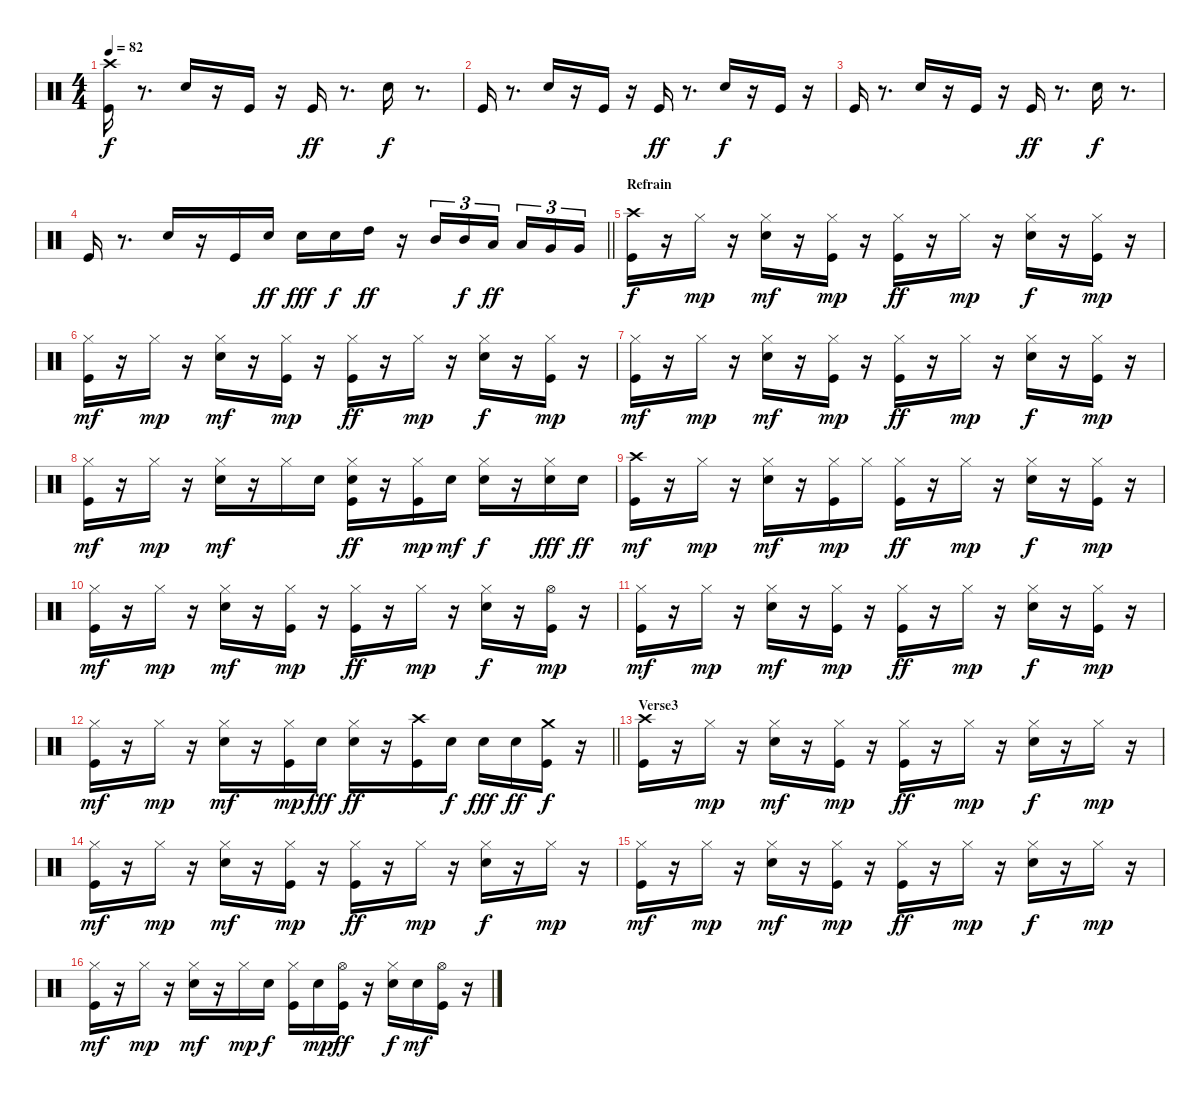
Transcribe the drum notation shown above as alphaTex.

\track "" {instrument percussion}
\staff {score}
\articulation defaults
\ts (4 4)
\tempo 82
\clef neutral
\ks c
("Crash high (hit)" "Kick (hit)").16{dy f} r.8{d} "Electric Snare (hit)".16 r.16 "Kick (hit)".16 r.16 "Kick (hit)".16{dy ff} r.8{d} "Electric Snare (hit)".16{dy f} r.8{d} |
"Kick (hit)".16 r.8{d} "Electric Snare (hit)".16 r.16 "Kick (hit)".16 r.16 "Kick (hit)".16{dy ff} r.8{d} "Electric Snare (hit)".16{dy f} r.16 "Kick (hit)".16 r.16 |
"Kick (hit)".16 r.8{d} "Electric Snare (hit)".16 r.16 "Kick (hit)".16 r.16 "Kick (hit)".16{dy ff} r.8{d} "Electric Snare (hit)".16{dy f} r.8{d} |
\barLineRight lightlight "Kick (hit)".16
r.8{d} "Electric Snare (hit)".16 r.16 "Kick (hit)".16 "Electric Snare (hit)".16{dy ff} "Electric Snare (hit)".16{dy fff} "Electric Snare (hit)".16{dy f} "High Tom (hit)".16{dy ff} r.16 "Mid Tom (hit)".16{tu (3 2)} "Mid Tom (hit)".16{tu (3 2) dy f} "Low Tom (hit)".16{tu (3 2) dy ff beam splitsecondary} "Low Tom (hit)".16{tu (3 2)} "Very Low Tom (hit)".16{tu (3 2)} "Very Low Tom (hit)".16{tu (3 2)} |
\section ("" "Refrain")
("Crash high (hit)" "Kick (hit)").16{dy f} r.16 "Hi-Hat (closed)".16{dy mp} r.16 ("Electric Snare (hit)" "Hi-Hat (closed)").16{dy mf} r.16 ("Kick (hit)" "Hi-Hat (closed)").16{dy mp} r.16 ("Hi-Hat (closed)" "Kick (hit)").16{dy ff} r.16 "Hi-Hat (closed)".16{dy mp} r.16 ("Electric Snare (hit)" "Hi-Hat (closed)").16{dy f} r.16 ("Hi-Hat (closed)" "Kick (hit)").16{dy mp} r.16 |
("Hi-Hat (closed)" "Kick (hit)").16{dy mf} r.16 "Hi-Hat (closed)".16{dy mp} r.16 ("Electric Snare (hit)" "Hi-Hat (closed)").16{dy mf} r.16 ("Kick (hit)" "Hi-Hat (closed)").16{dy mp} r.16 ("Hi-Hat (closed)" "Kick (hit)").16{dy ff} r.16 "Hi-Hat (closed)".16{dy mp} r.16 ("Electric Snare (hit)" "Hi-Hat (closed)").16{dy f} r.16 ("Hi-Hat (closed)" "Kick (hit)").16{dy mp} r.16 |
("Hi-Hat (closed)" "Kick (hit)").16{dy mf} r.16 "Hi-Hat (closed)".16{dy mp} r.16 ("Electric Snare (hit)" "Hi-Hat (closed)").16{dy mf} r.16 ("Kick (hit)" "Hi-Hat (closed)").16{dy mp} r.16 ("Hi-Hat (closed)" "Kick (hit)").16{dy ff} r.16 "Hi-Hat (closed)".16{dy mp} r.16 ("Electric Snare (hit)" "Hi-Hat (closed)").16{dy f} r.16 ("Hi-Hat (closed)" "Kick (hit)").16{dy mp} r.16 |
("Hi-Hat (closed)" "Kick (hit)").16{dy mf} r.16 "Hi-Hat (closed)".16{dy mp} r.16 ("Electric Snare (hit)" "Hi-Hat (closed)").16{dy mf} r.16 "Hi-Hat (closed)".16 "Electric Snare (hit)".16 ("Electric Snare (hit)" "Hi-Hat (closed)" "Kick (hit)").16{dy ff} r.16 ("Hi-Hat (closed)" "Kick (hit)").16{dy mp} "Electric Snare (hit)".16{dy mf} ("Electric Snare (hit)" "Hi-Hat (closed)").16{dy f} r.16 ("Hi-Hat (closed)" "Electric Snare (hit)").16{dy fff} "Electric Snare (hit)".16{dy ff} |
("Crash high (hit)" "Kick (hit)").16{dy mf} r.16 "Hi-Hat (closed)".16{dy mp} r.16 ("Electric Snare (hit)" "Hi-Hat (closed)").16{dy mf} r.16 ("Kick (hit)" "Hi-Hat (closed)").16{dy mp} "Hi-Hat (closed)".16 ("Hi-Hat (closed)" "Kick (hit)").16{dy ff} r.16 "Hi-Hat (closed)".16{dy mp} r.16 ("Electric Snare (hit)" "Hi-Hat (closed)").16{dy f} r.16 ("Hi-Hat (closed)" "Kick (hit)").16{dy mp} r.16 |
("Hi-Hat (closed)" "Kick (hit)").16{dy mf} r.16 "Hi-Hat (closed)".16{dy mp} r.16 ("Electric Snare (hit)" "Hi-Hat (closed)").16{dy mf} r.16 ("Kick (hit)" "Hi-Hat (closed)").16{dy mp} r.16 ("Hi-Hat (closed)" "Kick (hit)").16{dy ff} r.16 "Hi-Hat (closed)".16{dy mp} r.16 ("Electric Snare (hit)" "Hi-Hat (closed)").16{dy f} r.16 ("Hi-Hat (open)" "Kick (hit)").16{dy mp} r.16 |
("Hi-Hat (closed)" "Kick (hit)").16{dy mf} r.16 "Hi-Hat (closed)".16{dy mp} r.16 ("Electric Snare (hit)" "Hi-Hat (closed)").16{dy mf} r.16 ("Kick (hit)" "Hi-Hat (closed)").16{dy mp} r.16 ("Hi-Hat (closed)" "Kick (hit)").16{dy ff} r.16 "Hi-Hat (closed)".16{dy mp} r.16 ("Electric Snare (hit)" "Hi-Hat (closed)").16{dy f} r.16 ("Hi-Hat (closed)" "Kick (hit)").16{dy mp} r.16 |
\barLineRight lightlight
("Hi-Hat (closed)" "Kick (hit)").16{dy mf} r.16 "Hi-Hat (closed)".16{dy mp} r.16 ("Electric Snare (hit)" "Hi-Hat (closed)").16{dy mf} r.16 ("Kick (hit)" "Hi-Hat (closed)").16{dy mp} "Electric Snare (hit)".16{dy fff} ("Hi-Hat (closed)" "Electric Snare (hit)").16{dy ff} r.16 ("Crash high (hit)" "Kick (hit)").16 "Electric Snare (hit)".16{dy f} "Electric Snare (hit)".16{dy fff} "Electric Snare (hit)".16{dy ff} ("Crash medium (hit)" "Kick (hit)").16{dy f} r.16 |
\section ("" "Verse3")
("Crash high (hit)" "Kick (hit)").16 r.16 "Hi-Hat (closed)".16{dy mp} r.16 ("Electric Snare (hit)" "Hi-Hat (closed)").16{dy mf} r.16 ("Kick (hit)" "Hi-Hat (closed)").16{dy mp} r.16 ("Hi-Hat (closed)" "Kick (hit)").16{dy ff} r.16 "Hi-Hat (closed)".16{dy mp} r.16 ("Electric Snare (hit)" "Hi-Hat (closed)").16{dy f} r.16 "Hi-Hat (closed)".16{dy mp} r.16 |
("Hi-Hat (closed)" "Kick (hit)").16{dy mf} r.16 "Hi-Hat (closed)".16{dy mp} r.16 ("Electric Snare (hit)" "Hi-Hat (closed)").16{dy mf} r.16 ("Kick (hit)" "Hi-Hat (closed)").16{dy mp} r.16 ("Hi-Hat (closed)" "Kick (hit)").16{dy ff} r.16 "Hi-Hat (closed)".16{dy mp} r.16 ("Electric Snare (hit)" "Hi-Hat (closed)").16{dy f} r.16 "Hi-Hat (closed)".16{dy mp} r.16 |
("Hi-Hat (closed)" "Kick (hit)").16{dy mf} r.16 "Hi-Hat (closed)".16{dy mp} r.16 ("Electric Snare (hit)" "Hi-Hat (closed)").16{dy mf} r.16 ("Kick (hit)" "Hi-Hat (closed)").16{dy mp} r.16 ("Hi-Hat (closed)" "Kick (hit)").16{dy ff} r.16 "Hi-Hat (closed)".16{dy mp} r.16 ("Electric Snare (hit)" "Hi-Hat (closed)").16{dy f} r.16 "Hi-Hat (closed)".16{dy mp} r.16 |
("Hi-Hat (closed)" "Kick (hit)").16{dy mf} r.16 "Hi-Hat (closed)".16{dy mp} r.16 ("Electric Snare (hit)" "Hi-Hat (closed)").16{dy mf} r.16 "Hi-Hat (closed)".16{dy mp} "Electric Snare (hit)".16{dy f} ("Hi-Hat (closed)" "Kick (hit)").16 "Electric Snare (hit)".16{dy mp} ("Hi-Hat (open)" "Kick (hit)").16{dy ff} r.16 ("Electric Snare (hit)" "Hi-Hat (closed)").16{dy f} "Electric Snare (hit)".16{dy mf} ("Hi-Hat (open)" "Kick (hit)").16 r.16
